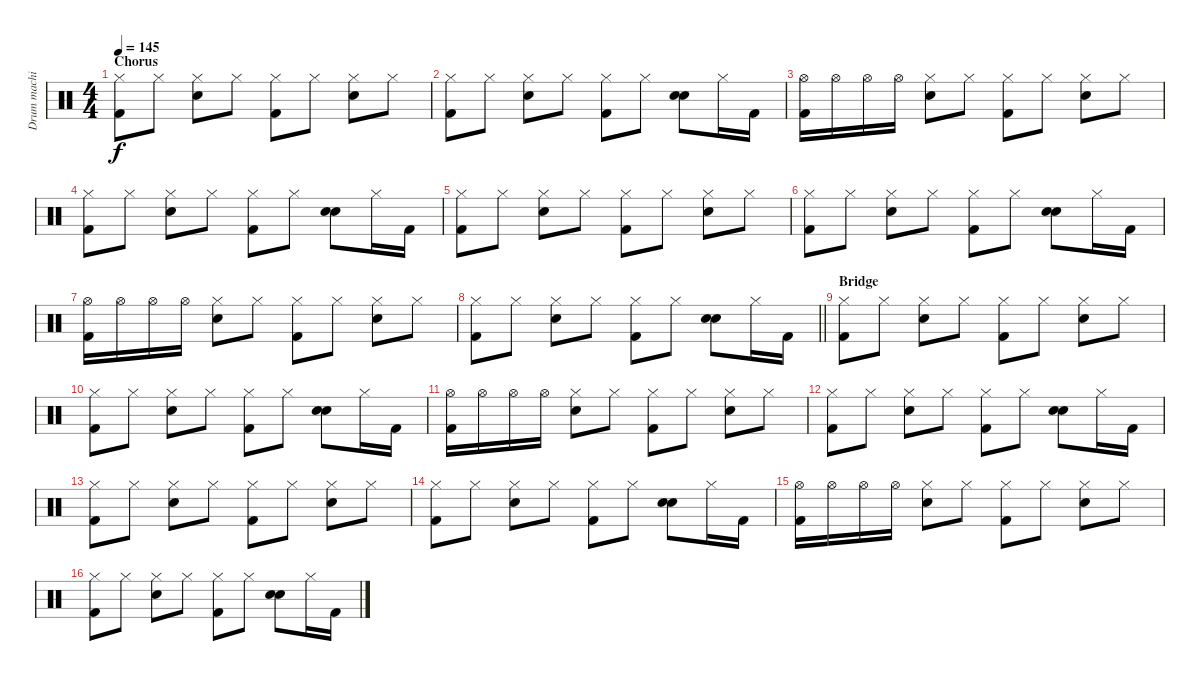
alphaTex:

\track ("Drum machine" "Drum machi") {instrument percussion}
\staff {score}
\articulation defaults
\ts (4 4)
\section ("" "Chorus")
\tempo 145
\clef neutral
\ks c
("Hi-Hat (closed)" "Kick (hit) 2").8{dy f} "Hi-Hat (closed)".8 ("Hi-Hat (closed)" "Electric Snare (hit)").8 "Hi-Hat (closed)".8 ("Hi-Hat (closed)" "Kick (hit) 2").8 "Hi-Hat (closed)".8 ("Hi-Hat (closed)" "Electric Snare (hit)").8 "Hi-Hat (closed)".8 |
("Hi-Hat (closed)" "Kick (hit) 2").8 "Hi-Hat (closed)".8 ("Hi-Hat (closed)" "Electric Snare (hit)").8 "Hi-Hat (closed)".8 ("Hi-Hat (closed)" "Kick (hit) 2").8 "Hi-Hat (closed)".8 ("Snare (hit) 2" "Electric Snare (hit)").8 "Hi-Hat (closed)".16 "Kick (hit) 2".16 |
("Hi-Hat (open)" "Kick (hit) 2").16 "Hi-Hat (open)".16 "Hi-Hat (open)".16 "Hi-Hat (open)".16 ("Hi-Hat (closed)" "Electric Snare (hit)").8 "Hi-Hat (closed)".8 ("Hi-Hat (closed)" "Kick (hit) 2").8 "Hi-Hat (closed)".8 ("Hi-Hat (closed)" "Electric Snare (hit)").8 "Hi-Hat (closed)".8 |
("Hi-Hat (closed)" "Kick (hit) 2").8 "Hi-Hat (closed)".8 ("Hi-Hat (closed)" "Electric Snare (hit)").8 "Hi-Hat (closed)".8 ("Hi-Hat (closed)" "Kick (hit) 2").8 "Hi-Hat (closed)".8 ("Snare (hit) 2" "Electric Snare (hit)").8 "Hi-Hat (closed)".16 "Kick (hit) 2".16 |
("Hi-Hat (closed)" "Kick (hit) 2").8 "Hi-Hat (closed)".8 ("Hi-Hat (closed)" "Electric Snare (hit)").8 "Hi-Hat (closed)".8 ("Hi-Hat (closed)" "Kick (hit) 2").8 "Hi-Hat (closed)".8 ("Hi-Hat (closed)" "Electric Snare (hit)").8 "Hi-Hat (closed)".8 |
("Hi-Hat (closed)" "Kick (hit) 2").8 "Hi-Hat (closed)".8 ("Hi-Hat (closed)" "Electric Snare (hit)").8 "Hi-Hat (closed)".8 ("Hi-Hat (closed)" "Kick (hit) 2").8 "Hi-Hat (closed)".8 ("Snare (hit) 2" "Electric Snare (hit)").8 "Hi-Hat (closed)".16 "Kick (hit) 2".16 |
("Hi-Hat (open)" "Kick (hit) 2").16 "Hi-Hat (open)".16 "Hi-Hat (open)".16 "Hi-Hat (open)".16 ("Hi-Hat (closed)" "Electric Snare (hit)").8 "Hi-Hat (closed)".8 ("Hi-Hat (closed)" "Kick (hit) 2").8 "Hi-Hat (closed)".8 ("Hi-Hat (closed)" "Electric Snare (hit)").8 "Hi-Hat (closed)".8 |
\barLineRight lightlight
("Hi-Hat (closed)" "Kick (hit) 2").8 "Hi-Hat (closed)".8 ("Hi-Hat (closed)" "Electric Snare (hit)").8 "Hi-Hat (closed)".8 ("Hi-Hat (closed)" "Kick (hit) 2").8 "Hi-Hat (closed)".8 ("Snare (hit) 2" "Electric Snare (hit)").8 "Hi-Hat (closed)".16 "Kick (hit) 2".16 |
\section ("" "Bridge")
("Hi-Hat (closed)" "Kick (hit) 2").8 "Hi-Hat (closed)".8 ("Hi-Hat (closed)" "Electric Snare (hit)").8 "Hi-Hat (closed)".8 ("Hi-Hat (closed)" "Kick (hit) 2").8 "Hi-Hat (closed)".8 ("Hi-Hat (closed)" "Electric Snare (hit)").8 "Hi-Hat (closed)".8 |
("Hi-Hat (closed)" "Kick (hit) 2").8 "Hi-Hat (closed)".8 ("Hi-Hat (closed)" "Electric Snare (hit)").8 "Hi-Hat (closed)".8 ("Hi-Hat (closed)" "Kick (hit) 2").8 "Hi-Hat (closed)".8 ("Snare (hit) 2" "Electric Snare (hit)").8 "Hi-Hat (closed)".16 "Kick (hit) 2".16 |
("Hi-Hat (open)" "Kick (hit) 2").16 "Hi-Hat (open)".16 "Hi-Hat (open)".16 "Hi-Hat (open)".16 ("Hi-Hat (closed)" "Electric Snare (hit)").8 "Hi-Hat (closed)".8 ("Hi-Hat (closed)" "Kick (hit) 2").8 "Hi-Hat (closed)".8 ("Hi-Hat (closed)" "Electric Snare (hit)").8 "Hi-Hat (closed)".8 |
("Hi-Hat (closed)" "Kick (hit) 2").8 "Hi-Hat (closed)".8 ("Hi-Hat (closed)" "Electric Snare (hit)").8 "Hi-Hat (closed)".8 ("Hi-Hat (closed)" "Kick (hit) 2").8 "Hi-Hat (closed)".8 ("Snare (hit) 2" "Electric Snare (hit)").8 "Hi-Hat (closed)".16 "Kick (hit) 2".16 |
("Hi-Hat (closed)" "Kick (hit) 2").8 "Hi-Hat (closed)".8 ("Hi-Hat (closed)" "Electric Snare (hit)").8 "Hi-Hat (closed)".8 ("Hi-Hat (closed)" "Kick (hit) 2").8 "Hi-Hat (closed)".8 ("Hi-Hat (closed)" "Electric Snare (hit)").8 "Hi-Hat (closed)".8 |
("Hi-Hat (closed)" "Kick (hit) 2").8 "Hi-Hat (closed)".8 ("Hi-Hat (closed)" "Electric Snare (hit)").8 "Hi-Hat (closed)".8 ("Hi-Hat (closed)" "Kick (hit) 2").8 "Hi-Hat (closed)".8 ("Snare (hit) 2" "Electric Snare (hit)").8 "Hi-Hat (closed)".16 "Kick (hit) 2".16 |
("Hi-Hat (open)" "Kick (hit) 2").16 "Hi-Hat (open)".16 "Hi-Hat (open)".16 "Hi-Hat (open)".16 ("Hi-Hat (closed)" "Electric Snare (hit)").8 "Hi-Hat (closed)".8 ("Hi-Hat (closed)" "Kick (hit) 2").8 "Hi-Hat (closed)".8 ("Hi-Hat (closed)" "Electric Snare (hit)").8 "Hi-Hat (closed)".8 |
("Hi-Hat (closed)" "Kick (hit) 2").8 "Hi-Hat (closed)".8 ("Hi-Hat (closed)" "Electric Snare (hit)").8 "Hi-Hat (closed)".8 ("Hi-Hat (closed)" "Kick (hit) 2").8 "Hi-Hat (closed)".8 ("Snare (hit) 2" "Electric Snare (hit)").8 "Hi-Hat (closed)".16 "Kick (hit) 2".16
